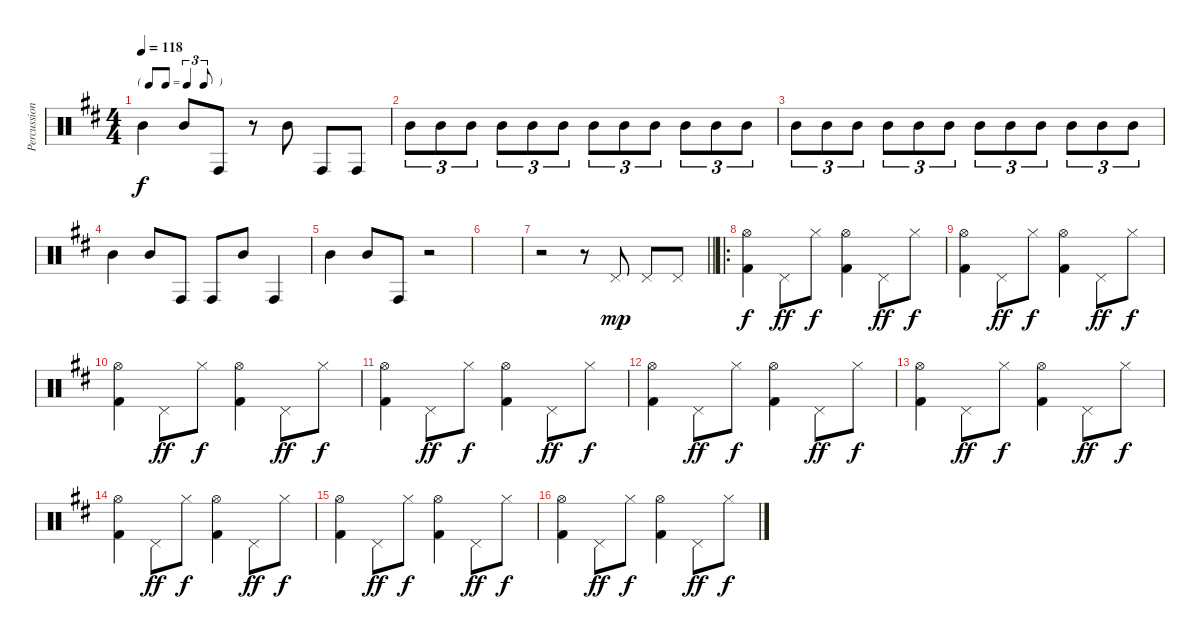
\track ("Percussion" "Percussion") {instrument percussion}
\staff {score}
\articulation defaults
\ts (4 4)
\tf triplet8th
\tempo 118
\clef neutral
\ks d "Mid Tom (hit)".4{dy f} "Mid Tom (hit)".8 "Conga high (hit)".8
r.8 "Mid Tom (hit)".8 "Conga high (hit)".8 "Conga high (hit)".8 |
"Mid Tom (hit)".8{tu (3 2)} "Mid Tom (hit)".8{tu (3 2)} "Mid Tom (hit)".8{tu (3 2)} "Mid Tom (hit)".8{tu (3 2)} "Mid Tom (hit)".8{tu (3 2)} "Mid Tom (hit)".8{tu (3 2)} "Mid Tom (hit)".8{tu (3 2)} "Mid Tom (hit)".8{tu (3 2)} "Mid Tom (hit)".8{tu (3 2)} "Mid Tom (hit)".8{tu (3 2)} "Mid Tom (hit)".8{tu (3 2)} "Mid Tom (hit)".8{tu (3 2)} |
"Mid Tom (hit)".8{tu (3 2)} "Mid Tom (hit)".8{tu (3 2)} "Mid Tom (hit)".8{tu (3 2)} "Mid Tom (hit)".8{tu (3 2)} "Mid Tom (hit)".8{tu (3 2)} "Mid Tom (hit)".8{tu (3 2)} "Mid Tom (hit)".8{tu (3 2)} "Mid Tom (hit)".8{tu (3 2)} "Mid Tom (hit)".8{tu (3 2)} "Mid Tom (hit)".8{tu (3 2)} "Mid Tom (hit)".8{tu (3 2)} "Mid Tom (hit)".8{tu (3 2)} |
"Mid Tom (hit)".4 "Mid Tom (hit)".8 "Conga high (hit)".8 "Conga high (hit)".8 "Mid Tom (hit)".8 "Conga high (hit)".4 |
"Mid Tom (hit)".4 "Mid Tom (hit)".8 "Conga high (hit)".8 r.2 |
|
\barLineRight lightlight
r.2 r.8 "Pedal Hi-Hat (hit)".8{dy mp} "Pedal Hi-Hat (hit)".8 "Pedal Hi-Hat (hit)".8 |
\ro
("Hi-Hat (open)" "Kick (hit) 2").4{dy f} "Pedal Hi-Hat (hit)".8{dy ff} "Hi-Hat (closed)".8{dy f} ("Hi-Hat (open)" "Kick (hit) 2").4 "Pedal Hi-Hat (hit)".8{dy ff} "Hi-Hat (closed)".8{dy f} |
("Hi-Hat (open)" "Kick (hit) 2").4 "Pedal Hi-Hat (hit)".8{dy ff} "Hi-Hat (closed)".8{dy f} ("Hi-Hat (open)" "Kick (hit) 2").4 "Pedal Hi-Hat (hit)".8{dy ff} "Hi-Hat (closed)".8{dy f} |
("Hi-Hat (open)" "Kick (hit) 2").4 "Pedal Hi-Hat (hit)".8{dy ff} "Hi-Hat (closed)".8{dy f} ("Hi-Hat (open)" "Kick (hit) 2").4 "Pedal Hi-Hat (hit)".8{dy ff} "Hi-Hat (closed)".8{dy f} |
("Hi-Hat (open)" "Kick (hit) 2").4 "Pedal Hi-Hat (hit)".8{dy ff} "Hi-Hat (closed)".8{dy f} ("Hi-Hat (open)" "Kick (hit) 2").4 "Pedal Hi-Hat (hit)".8{dy ff} "Hi-Hat (closed)".8{dy f} |
("Hi-Hat (open)" "Kick (hit) 2").4 "Pedal Hi-Hat (hit)".8{dy ff} "Hi-Hat (closed)".8{dy f} ("Hi-Hat (open)" "Kick (hit) 2").4 "Pedal Hi-Hat (hit)".8{dy ff} "Hi-Hat (closed)".8{dy f} |
("Hi-Hat (open)" "Kick (hit) 2").4 "Pedal Hi-Hat (hit)".8{dy ff} "Hi-Hat (closed)".8{dy f} ("Hi-Hat (open)" "Kick (hit) 2").4 "Pedal Hi-Hat (hit)".8{dy ff} "Hi-Hat (closed)".8{dy f} |
("Hi-Hat (open)" "Kick (hit) 2").4 "Pedal Hi-Hat (hit)".8{dy ff} "Hi-Hat (closed)".8{dy f} ("Hi-Hat (open)" "Kick (hit) 2").4 "Pedal Hi-Hat (hit)".8{dy ff} "Hi-Hat (closed)".8{dy f} |
("Hi-Hat (open)" "Kick (hit) 2").4 "Pedal Hi-Hat (hit)".8{dy ff} "Hi-Hat (closed)".8{dy f} ("Hi-Hat (open)" "Kick (hit) 2").4 "Pedal Hi-Hat (hit)".8{dy ff} "Hi-Hat (closed)".8{dy f} |
("Hi-Hat (open)" "Kick (hit) 2").4 "Pedal Hi-Hat (hit)".8{dy ff} "Hi-Hat (closed)".8{dy f} ("Hi-Hat (open)" "Kick (hit) 2").4 "Pedal Hi-Hat (hit)".8{dy ff} "Hi-Hat (closed)".8{dy f}
